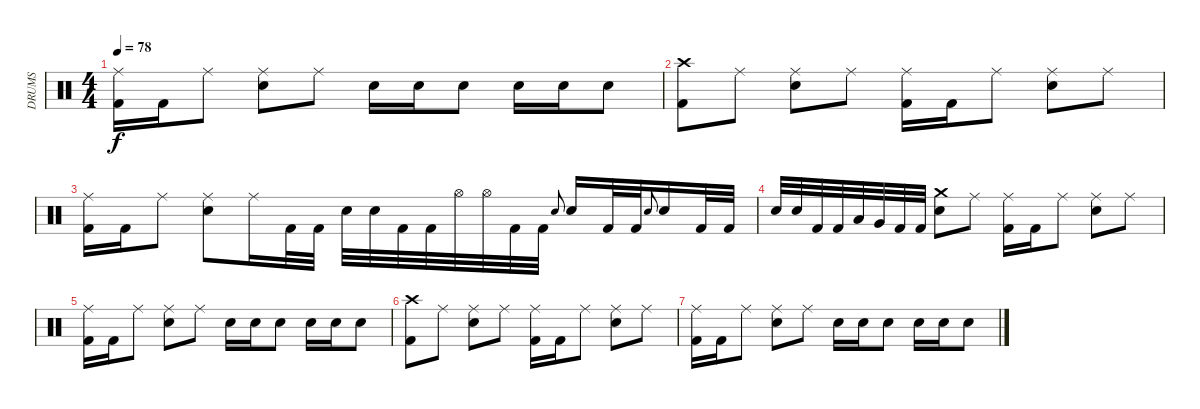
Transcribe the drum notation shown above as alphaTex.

\track ("DRUMS" "DRUMS") {instrument percussion}
\staff {score}
\articulation defaults
\ts (4 4)
\tempo 78
\clef neutral
\ks c
("Ride (middle)" "Kick (hit) 2").16{dy f} "Kick (hit) 2".16 "Ride (middle)".8 ("Ride (middle)" "Snare (hit) 2").8 "Ride (middle)".8 "Snare (hit) 2".16 "Snare (hit) 2".16 "Snare (hit) 2".8 "Snare (hit) 2".16 "Snare (hit) 2".16 "Snare (hit) 2".8 |
("Crash high (hit)" "Kick (hit) 2").8 "Ride (middle)".8 ("Ride (middle)" "Snare (hit) 2").8 "Ride (middle)".8 ("Ride (middle)" "Kick (hit) 2").16 "Kick (hit) 2".16 "Ride (middle)".8 ("Ride (middle)" "Snare (hit) 2").8 "Ride (middle)".8 |
("Ride (middle)" "Kick (hit) 2").16 "Kick (hit) 2".16 "Ride (middle)".8 ("Ride (middle)" "Snare (hit) 2").8 "Ride (middle)".16 "Kick (hit) 2".32 "Kick (hit) 2".32 "Snare (hit) 2".32 "Snare (hit) 2".32 "Kick (hit) 2".32 "Kick (hit) 2".32 "Hi-Hat (open)".32 "Hi-Hat (open)".32 "Kick (hit) 2".32 "Kick (hit) 2".32 "Snare (hit) 2".8{gr onbeat} "Snare (hit) 2".16 "Kick (hit) 2".32 "Kick (hit) 2".32 "Snare (hit) 2".8{gr onbeat} "Snare (hit) 2".16 "Kick (hit) 2".32 "Kick (hit) 2".32 |
"Snare (hit) 2".32 "Snare (hit) 2".32 "Kick (hit) 2".32 "Kick (hit) 2".32 "Low Tom (hit)".32 "Very Low Tom (hit)".32 "Kick (hit) 2".32 "Kick (hit) 2".32 ("Crash medium (hit)" "Snare (hit) 2").8 "Ride (middle)".8 ("Ride (middle)" "Kick (hit) 2").16 "Kick (hit) 2".16 "Ride (middle)".8 ("Ride (middle)" "Snare (hit) 2").8 "Ride (middle)".8 |
("Ride (middle)" "Kick (hit) 2").16 "Kick (hit) 2".16 "Ride (middle)".8 ("Ride (middle)" "Snare (hit) 2").8 "Ride (middle)".8 "Snare (hit) 2".16 "Snare (hit) 2".16 "Snare (hit) 2".8 "Snare (hit) 2".16 "Snare (hit) 2".16 "Snare (hit) 2".8 |
("Crash high (hit)" "Kick (hit) 2").8 "Ride (middle)".8 ("Ride (middle)" "Snare (hit) 2").8 "Ride (middle)".8 ("Ride (middle)" "Kick (hit) 2").16 "Kick (hit) 2".16 "Ride (middle)".8 ("Ride (middle)" "Snare (hit) 2").8 "Ride (middle)".8 |
("Ride (middle)" "Kick (hit) 2").16 "Kick (hit) 2".16 "Ride (middle)".8 ("Ride (middle)" "Snare (hit) 2").8 "Ride (middle)".8 "Snare (hit) 2".16 "Snare (hit) 2".16 "Snare (hit) 2".8 "Snare (hit) 2".16 "Snare (hit) 2".16 "Snare (hit) 2".8
